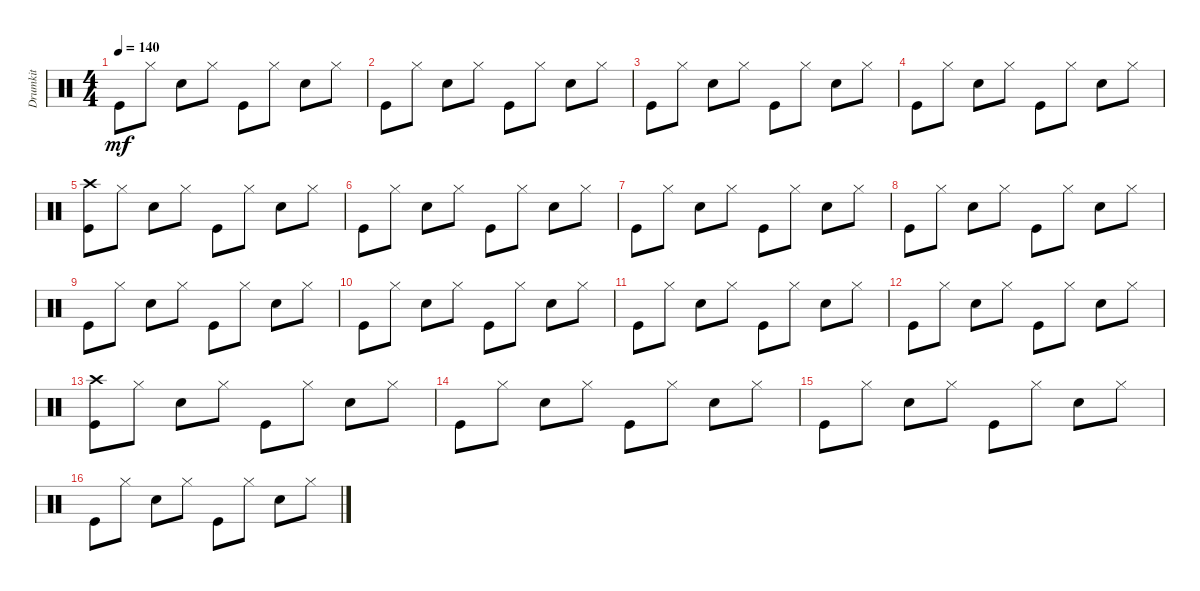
\track ("Drumkit" "Drumkit") {instrument percussion}
\staff {score}
\articulation defaults
\ts (4 4)
\tempo 140
\clef neutral
\ks c "Kick (hit)".8{dy mf} "Hi-Hat (closed)".8 "Snare (hit) 2".8 "Hi-Hat (closed)".8 "Kick (hit)".8 "Hi-Hat (closed)".8 "Snare (hit) 2".8 "Hi-Hat (closed)".8
|
"Kick (hit)".8 "Hi-Hat (closed)".8 "Snare (hit) 2".8 "Hi-Hat (closed)".8 "Kick (hit)".8 "Hi-Hat (closed)".8 "Snare (hit) 2".8 "Hi-Hat (closed)".8 |
"Kick (hit)".8 "Hi-Hat (closed)".8 "Snare (hit) 2".8 "Hi-Hat (closed)".8 "Kick (hit)".8 "Hi-Hat (closed)".8 "Snare (hit) 2".8 "Hi-Hat (closed)".8 |
"Kick (hit)".8 "Hi-Hat (closed)".8 "Snare (hit) 2".8 "Hi-Hat (closed)".8 "Kick (hit)".8 "Hi-Hat (closed)".8 "Snare (hit) 2".8 "Hi-Hat (closed)".8 |
("Kick (hit)" "Crash high (hit)").8 "Hi-Hat (closed)".8 "Snare (hit) 2".8 "Hi-Hat (closed)".8 "Kick (hit)".8 "Hi-Hat (closed)".8 "Snare (hit) 2".8 "Hi-Hat (closed)".8 |
"Kick (hit)".8 "Hi-Hat (closed)".8 "Snare (hit) 2".8 "Hi-Hat (closed)".8 "Kick (hit)".8 "Hi-Hat (closed)".8 "Snare (hit) 2".8 "Hi-Hat (closed)".8 |
"Kick (hit)".8 "Hi-Hat (closed)".8 "Snare (hit) 2".8 "Hi-Hat (closed)".8 "Kick (hit)".8 "Hi-Hat (closed)".8 "Snare (hit) 2".8 "Hi-Hat (closed)".8 |
"Kick (hit)".8 "Hi-Hat (closed)".8 "Snare (hit) 2".8 "Hi-Hat (closed)".8 "Kick (hit)".8 "Hi-Hat (closed)".8 "Snare (hit) 2".8 "Hi-Hat (closed)".8 |
"Kick (hit)".8 "Hi-Hat (closed)".8 "Snare (hit) 2".8 "Hi-Hat (closed)".8 "Kick (hit)".8 "Hi-Hat (closed)".8 "Snare (hit) 2".8 "Hi-Hat (closed)".8 |
"Kick (hit)".8 "Hi-Hat (closed)".8 "Snare (hit) 2".8 "Hi-Hat (closed)".8 "Kick (hit)".8 "Hi-Hat (closed)".8 "Snare (hit) 2".8 "Hi-Hat (closed)".8 |
"Kick (hit)".8 "Hi-Hat (closed)".8 "Snare (hit) 2".8 "Hi-Hat (closed)".8 "Kick (hit)".8 "Hi-Hat (closed)".8 "Snare (hit) 2".8 "Hi-Hat (closed)".8 |
"Kick (hit)".8 "Hi-Hat (closed)".8 "Snare (hit) 2".8 "Hi-Hat (closed)".8 "Kick (hit)".8 "Hi-Hat (closed)".8 "Snare (hit) 2".8 "Hi-Hat (closed)".8 |
("Kick (hit)" "Crash high (hit)").8 "Hi-Hat (closed)".8 "Snare (hit) 2".8 "Hi-Hat (closed)".8 "Kick (hit)".8 "Hi-Hat (closed)".8 "Snare (hit) 2".8 "Hi-Hat (closed)".8 |
"Kick (hit)".8 "Hi-Hat (closed)".8 "Snare (hit) 2".8 "Hi-Hat (closed)".8 "Kick (hit)".8 "Hi-Hat (closed)".8 "Snare (hit) 2".8 "Hi-Hat (closed)".8 |
"Kick (hit)".8 "Hi-Hat (closed)".8 "Snare (hit) 2".8 "Hi-Hat (closed)".8 "Kick (hit)".8 "Hi-Hat (closed)".8 "Snare (hit) 2".8 "Hi-Hat (closed)".8 |
"Kick (hit)".8 "Hi-Hat (closed)".8 "Snare (hit) 2".8 "Hi-Hat (closed)".8 "Kick (hit)".8 "Hi-Hat (closed)".8 "Snare (hit) 2".8 "Hi-Hat (closed)".8
